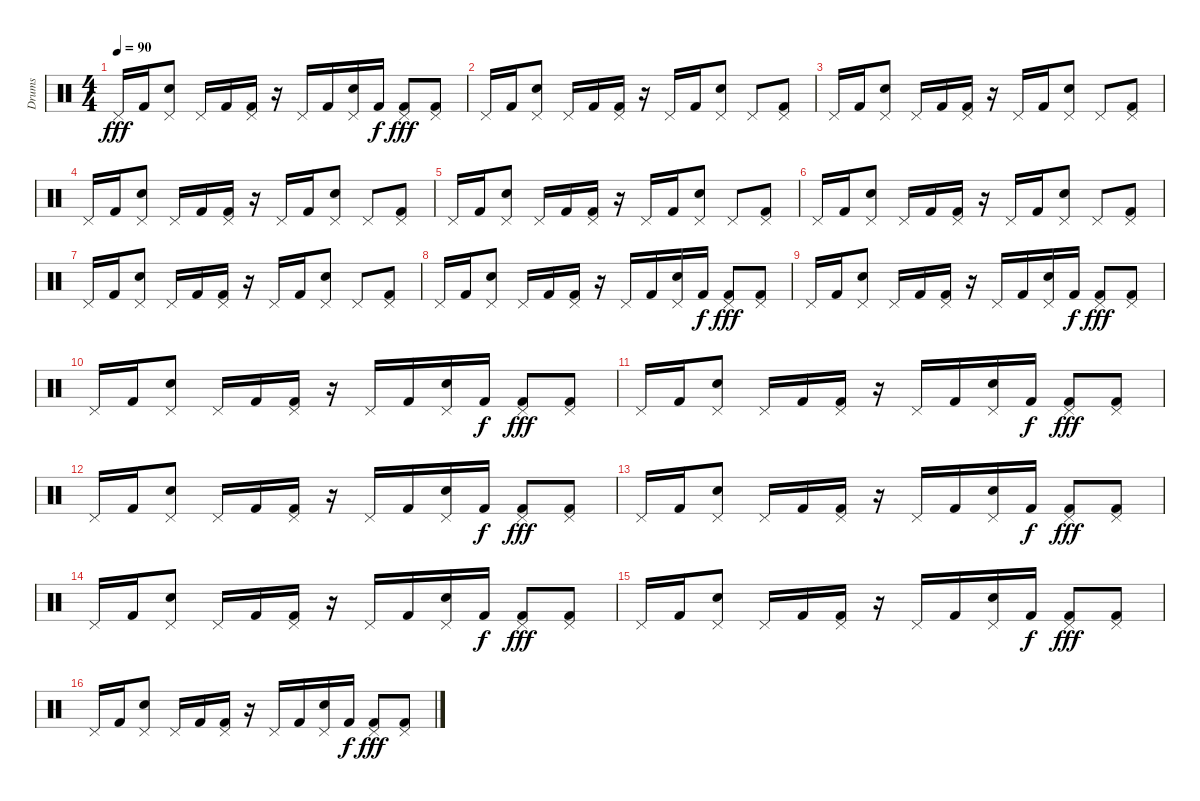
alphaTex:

\track ("Drums" "Drums") {instrument percussion}
\staff {score}
\articulation defaults
\ts (4 4)
\tempo 90
\clef neutral
\ks c "Pedal Hi-Hat (hit)".16{dy fff} "Kick (hit) 2".16
("Electric Snare (hit)" "Pedal Hi-Hat (hit)").8 "Pedal Hi-Hat (hit)".16 "Kick (hit) 2".16 ("Kick (hit) 2" "Pedal Hi-Hat (hit)").16 r.16 "Pedal Hi-Hat (hit)".16 "Kick (hit) 2".16 ("Pedal Hi-Hat (hit)" "Electric Snare (hit)").16 "Kick (hit) 2".16{dy f} ("Kick (hit) 2" "Pedal Hi-Hat (hit)").8{dy fff} ("Kick (hit) 2" "Pedal Hi-Hat (hit)").8 |
"Pedal Hi-Hat (hit)".16 "Kick (hit) 2".16 ("Electric Snare (hit)" "Pedal Hi-Hat (hit)").8 "Pedal Hi-Hat (hit)".16 "Kick (hit) 2".16 ("Kick (hit) 2" "Pedal Hi-Hat (hit)").16 r.16 "Pedal Hi-Hat (hit)".16 "Kick (hit) 2".16 ("Pedal Hi-Hat (hit)" "Electric Snare (hit)").8 "Pedal Hi-Hat (hit)".8 ("Kick (hit) 2" "Pedal Hi-Hat (hit)").8 |
"Pedal Hi-Hat (hit)".16 "Kick (hit) 2".16 ("Electric Snare (hit)" "Pedal Hi-Hat (hit)").8 "Pedal Hi-Hat (hit)".16 "Kick (hit) 2".16 ("Kick (hit) 2" "Pedal Hi-Hat (hit)").16 r.16 "Pedal Hi-Hat (hit)".16 "Kick (hit) 2".16 ("Pedal Hi-Hat (hit)" "Electric Snare (hit)").8 "Pedal Hi-Hat (hit)".8 ("Kick (hit) 2" "Pedal Hi-Hat (hit)").8 |
"Pedal Hi-Hat (hit)".16 "Kick (hit) 2".16 ("Electric Snare (hit)" "Pedal Hi-Hat (hit)").8 "Pedal Hi-Hat (hit)".16 "Kick (hit) 2".16 ("Kick (hit) 2" "Pedal Hi-Hat (hit)").16 r.16 "Pedal Hi-Hat (hit)".16 "Kick (hit) 2".16 ("Pedal Hi-Hat (hit)" "Electric Snare (hit)").8 "Pedal Hi-Hat (hit)".8 ("Kick (hit) 2" "Pedal Hi-Hat (hit)").8 |
"Pedal Hi-Hat (hit)".16 "Kick (hit) 2".16 ("Electric Snare (hit)" "Pedal Hi-Hat (hit)").8 "Pedal Hi-Hat (hit)".16 "Kick (hit) 2".16 ("Kick (hit) 2" "Pedal Hi-Hat (hit)").16 r.16 "Pedal Hi-Hat (hit)".16 "Kick (hit) 2".16 ("Pedal Hi-Hat (hit)" "Electric Snare (hit)").8 "Pedal Hi-Hat (hit)".8 ("Kick (hit) 2" "Pedal Hi-Hat (hit)").8 |
"Pedal Hi-Hat (hit)".16 "Kick (hit) 2".16 ("Electric Snare (hit)" "Pedal Hi-Hat (hit)").8 "Pedal Hi-Hat (hit)".16 "Kick (hit) 2".16 ("Kick (hit) 2" "Pedal Hi-Hat (hit)").16 r.16 "Pedal Hi-Hat (hit)".16 "Kick (hit) 2".16 ("Pedal Hi-Hat (hit)" "Electric Snare (hit)").8 "Pedal Hi-Hat (hit)".8 ("Kick (hit) 2" "Pedal Hi-Hat (hit)").8 |
"Pedal Hi-Hat (hit)".16 "Kick (hit) 2".16 ("Electric Snare (hit)" "Pedal Hi-Hat (hit)").8 "Pedal Hi-Hat (hit)".16 "Kick (hit) 2".16 ("Kick (hit) 2" "Pedal Hi-Hat (hit)").16 r.16 "Pedal Hi-Hat (hit)".16 "Kick (hit) 2".16 ("Pedal Hi-Hat (hit)" "Electric Snare (hit)").8 "Pedal Hi-Hat (hit)".8 ("Kick (hit) 2" "Pedal Hi-Hat (hit)").8 |
"Pedal Hi-Hat (hit)".16 "Kick (hit) 2".16 ("Electric Snare (hit)" "Pedal Hi-Hat (hit)").8 "Pedal Hi-Hat (hit)".16 "Kick (hit) 2".16 ("Kick (hit) 2" "Pedal Hi-Hat (hit)").16 r.16 "Pedal Hi-Hat (hit)".16 "Kick (hit) 2".16 ("Pedal Hi-Hat (hit)" "Electric Snare (hit)").16 "Kick (hit) 2".16{dy f} ("Kick (hit) 2" "Pedal Hi-Hat (hit)").8{dy fff} ("Kick (hit) 2" "Pedal Hi-Hat (hit)").8 |
"Pedal Hi-Hat (hit)".16 "Kick (hit) 2".16 ("Electric Snare (hit)" "Pedal Hi-Hat (hit)").8 "Pedal Hi-Hat (hit)".16 "Kick (hit) 2".16 ("Kick (hit) 2" "Pedal Hi-Hat (hit)").16 r.16 "Pedal Hi-Hat (hit)".16 "Kick (hit) 2".16 ("Pedal Hi-Hat (hit)" "Electric Snare (hit)").16 "Kick (hit) 2".16{dy f} ("Kick (hit) 2" "Pedal Hi-Hat (hit)").8{dy fff} ("Kick (hit) 2" "Pedal Hi-Hat (hit)").8 |
"Pedal Hi-Hat (hit)".16 "Kick (hit) 2".16 ("Electric Snare (hit)" "Pedal Hi-Hat (hit)").8 "Pedal Hi-Hat (hit)".16 "Kick (hit) 2".16 ("Kick (hit) 2" "Pedal Hi-Hat (hit)").16 r.16 "Pedal Hi-Hat (hit)".16 "Kick (hit) 2".16 ("Pedal Hi-Hat (hit)" "Electric Snare (hit)").16 "Kick (hit) 2".16{dy f} ("Kick (hit) 2" "Pedal Hi-Hat (hit)").8{dy fff} ("Kick (hit) 2" "Pedal Hi-Hat (hit)").8 |
"Pedal Hi-Hat (hit)".16 "Kick (hit) 2".16 ("Electric Snare (hit)" "Pedal Hi-Hat (hit)").8 "Pedal Hi-Hat (hit)".16 "Kick (hit) 2".16 ("Kick (hit) 2" "Pedal Hi-Hat (hit)").16 r.16 "Pedal Hi-Hat (hit)".16 "Kick (hit) 2".16 ("Pedal Hi-Hat (hit)" "Electric Snare (hit)").16 "Kick (hit) 2".16{dy f} ("Kick (hit) 2" "Pedal Hi-Hat (hit)").8{dy fff} ("Kick (hit) 2" "Pedal Hi-Hat (hit)").8 |
"Pedal Hi-Hat (hit)".16 "Kick (hit) 2".16 ("Electric Snare (hit)" "Pedal Hi-Hat (hit)").8 "Pedal Hi-Hat (hit)".16 "Kick (hit) 2".16 ("Kick (hit) 2" "Pedal Hi-Hat (hit)").16 r.16 "Pedal Hi-Hat (hit)".16 "Kick (hit) 2".16 ("Pedal Hi-Hat (hit)" "Electric Snare (hit)").16 "Kick (hit) 2".16{dy f} ("Kick (hit) 2" "Pedal Hi-Hat (hit)").8{dy fff} ("Kick (hit) 2" "Pedal Hi-Hat (hit)").8 |
"Pedal Hi-Hat (hit)".16 "Kick (hit) 2".16 ("Electric Snare (hit)" "Pedal Hi-Hat (hit)").8 "Pedal Hi-Hat (hit)".16 "Kick (hit) 2".16 ("Kick (hit) 2" "Pedal Hi-Hat (hit)").16 r.16 "Pedal Hi-Hat (hit)".16 "Kick (hit) 2".16 ("Pedal Hi-Hat (hit)" "Electric Snare (hit)").16 "Kick (hit) 2".16{dy f} ("Kick (hit) 2" "Pedal Hi-Hat (hit)").8{dy fff} ("Kick (hit) 2" "Pedal Hi-Hat (hit)").8 |
"Pedal Hi-Hat (hit)".16 "Kick (hit) 2".16 ("Electric Snare (hit)" "Pedal Hi-Hat (hit)").8 "Pedal Hi-Hat (hit)".16 "Kick (hit) 2".16 ("Kick (hit) 2" "Pedal Hi-Hat (hit)").16 r.16 "Pedal Hi-Hat (hit)".16 "Kick (hit) 2".16 ("Pedal Hi-Hat (hit)" "Electric Snare (hit)").16 "Kick (hit) 2".16{dy f} ("Kick (hit) 2" "Pedal Hi-Hat (hit)").8{dy fff} ("Kick (hit) 2" "Pedal Hi-Hat (hit)").8 |
"Pedal Hi-Hat (hit)".16 "Kick (hit) 2".16 ("Electric Snare (hit)" "Pedal Hi-Hat (hit)").8 "Pedal Hi-Hat (hit)".16 "Kick (hit) 2".16 ("Kick (hit) 2" "Pedal Hi-Hat (hit)").16 r.16 "Pedal Hi-Hat (hit)".16 "Kick (hit) 2".16 ("Pedal Hi-Hat (hit)" "Electric Snare (hit)").16 "Kick (hit) 2".16{dy f} ("Kick (hit) 2" "Pedal Hi-Hat (hit)").8{dy fff} ("Kick (hit) 2" "Pedal Hi-Hat (hit)").8 |
"Pedal Hi-Hat (hit)".16 "Kick (hit) 2".16 ("Electric Snare (hit)" "Pedal Hi-Hat (hit)").8 "Pedal Hi-Hat (hit)".16 "Kick (hit) 2".16 ("Kick (hit) 2" "Pedal Hi-Hat (hit)").16 r.16 "Pedal Hi-Hat (hit)".16 "Kick (hit) 2".16 ("Pedal Hi-Hat (hit)" "Electric Snare (hit)").16 "Kick (hit) 2".16{dy f} ("Kick (hit) 2" "Pedal Hi-Hat (hit)").8{dy fff} ("Kick (hit) 2" "Pedal Hi-Hat (hit)").8
